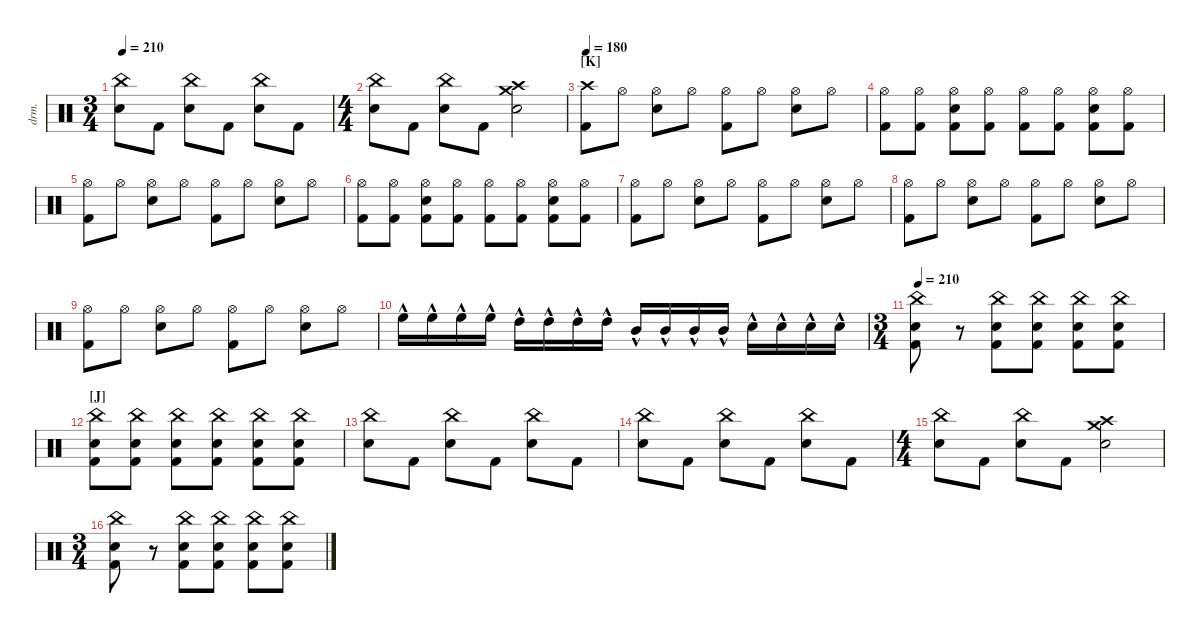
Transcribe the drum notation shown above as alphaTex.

\defaultSystemsLayout 4
\hideDynamics
\bracketExtendMode nobrackets
\otherSystemsTrackNameOrientation horizontal
\track ("Drumkit" "drm.") {instrument percussion}
\staff {score}
\articulation defaults
\ts (3 4)
\tempo 210
\clef neutral
\ks c
("Snare (hit) 2" "China (hit)").8{dy mf beam Down} "Kick (hit) 2".8{beam Down} ("Snare (hit) 2" "China (hit)").8{beam Down} "Kick (hit) 2".8{beam Down} ("Snare (hit) 2" "China (hit)").8{beam Down} "Kick (hit) 2".8{beam Down} |
\ts (4 4)
\beaming (8 2 2 2 2)
("Snare (hit) 2" "China (hit)").8{beam Down} "Kick (hit) 2".8{beam Down} ("Snare (hit) 2" "China (hit)").8{beam Down} "Kick (hit) 2".8{beam Down} ("Crash high (hit)" "Crash medium (hit)" "Snare (hit) 2").2{beam Down} |
\section ("K" "")
\tempo 180
("Kick (hit) 2" "Crash high (hit)").8{beam Down} "Hi-Hat (open)".8{beam Down} ("Hi-Hat (open)" "Snare (hit) 2").8{beam Down} "Hi-Hat (open)".8{beam Down} ("Kick (hit) 2" "Hi-Hat (open)").8{beam Down} "Hi-Hat (open)".8{beam Down} ("Hi-Hat (open)" "Snare (hit) 2").8{beam Down} "Hi-Hat (open)".8{beam Down} |
("Kick (hit) 2" "Hi-Hat (open)").8{beam Down} ("Hi-Hat (open)" "Kick (hit) 2").8{beam Down} ("Hi-Hat (open)" "Snare (hit) 2" "Kick (hit) 2").8{beam Down} ("Hi-Hat (open)" "Kick (hit) 2").8{beam Down} ("Kick (hit) 2" "Hi-Hat (open)").8{beam Down} ("Hi-Hat (open)" "Kick (hit) 2").8{beam Down} ("Hi-Hat (open)" "Snare (hit) 2" "Kick (hit) 2").8{beam Down} ("Hi-Hat (open)" "Kick (hit) 2").8{beam Down} |
("Kick (hit) 2" "Hi-Hat (open)").8{beam Down} "Hi-Hat (open)".8{beam Down} ("Hi-Hat (open)" "Snare (hit) 2").8{beam Down} "Hi-Hat (open)".8{beam Down} ("Kick (hit) 2" "Hi-Hat (open)").8{beam Down} "Hi-Hat (open)".8{beam Down} ("Hi-Hat (open)" "Snare (hit) 2").8{beam Down} "Hi-Hat (open)".8{beam Down} |
("Kick (hit) 2" "Hi-Hat (open)").8{beam Down} ("Hi-Hat (open)" "Kick (hit) 2").8{beam Down} ("Hi-Hat (open)" "Snare (hit) 2" "Kick (hit) 2").8{beam Down} ("Hi-Hat (open)" "Kick (hit) 2").8{beam Down} ("Kick (hit) 2" "Hi-Hat (open)").8{beam Down} ("Hi-Hat (open)" "Kick (hit) 2").8{beam Down} ("Hi-Hat (open)" "Snare (hit) 2" "Kick (hit) 2").8{beam Down} ("Hi-Hat (open)" "Kick (hit) 2").8{beam Down} |
("Kick (hit) 2" "Hi-Hat (open)").8{beam Down} "Hi-Hat (open)".8{beam Down} ("Hi-Hat (open)" "Snare (hit) 2").8{beam Down} "Hi-Hat (open)".8{beam Down} ("Kick (hit) 2" "Hi-Hat (open)").8{beam Down} "Hi-Hat (open)".8{beam Down} ("Hi-Hat (open)" "Snare (hit) 2").8{beam Down} "Hi-Hat (open)".8{beam Down} |
("Kick (hit) 2" "Hi-Hat (open)").8{beam Down} "Hi-Hat (open)".8{beam Down} ("Hi-Hat (open)" "Snare (hit) 2").8{beam Down} "Hi-Hat (open)".8{beam Down} ("Kick (hit) 2" "Hi-Hat (open)").8{beam Down} "Hi-Hat (open)".8{beam Down} ("Hi-Hat (open)" "Snare (hit) 2").8{beam Down} "Hi-Hat (open)".8{beam Down} |
("Kick (hit) 2" "Hi-Hat (open)").8{beam Down} "Hi-Hat (open)".8{beam Down} ("Hi-Hat (open)" "Snare (hit) 2").8{beam Down} "Hi-Hat (open)".8{beam Down} ("Kick (hit) 2" "Hi-Hat (open)").8{beam Down} "Hi-Hat (open)".8{beam Down} ("Hi-Hat (open)" "Snare (hit) 2").8{beam Down} "Hi-Hat (open)".8{beam Down} |
"High Floor Tom (hit)"{hac}.16{beam Down} "High Floor Tom (hit)"{hac}.16{beam Down} "High Floor Tom (hit)"{hac}.16{beam Down} "High Floor Tom (hit)"{hac}.16{beam Down} "High Tom (hit)"{hac}.16{beam Down} "High Tom (hit)"{hac}.16{beam Down} "High Tom (hit)"{hac}.16{beam Down} "High Tom (hit)"{hac}.16{beam Down} "Mid Tom (hit)"{hac}.16{beam Up} "Mid Tom (hit)"{hac}.16{beam Up} "Mid Tom (hit)"{hac}.16{beam Up} "Mid Tom (hit)"{hac}.16{beam Up} "Snare (hit) 2"{hac}.16{beam Down} "Snare (hit) 2"{hac}.16{beam Down} "Snare (hit) 2"{hac}.16{beam Down} "Snare (hit) 2"{hac}.16{beam Down} |
\ts (3 4)
\beaming (8 2 2 2)
\tempo 210
("Kick (hit) 2" "Snare (hit) 2" "China (hit)").8{beam Down} r.8{beam Down} ("Snare (hit) 2" "Kick (hit) 2" "China (hit)").8{beam Down} ("Snare (hit) 2" "Kick (hit) 2" "China (hit)").8{beam Down} ("Snare (hit) 2" "Kick (hit) 2" "China (hit)").8{beam Down} ("Snare (hit) 2" "Kick (hit) 2" "China (hit)").8{beam Down} |
\section ("J" "")
("Kick (hit) 2" "Snare (hit) 2" "China (hit)").8{beam Down} ("Snare (hit) 2" "Kick (hit) 2" "China (hit)").8{beam Down} ("Kick (hit) 2" "Snare (hit) 2" "China (hit)").8{beam Down} ("Snare (hit) 2" "Kick (hit) 2" "China (hit)").8{beam Down} ("Kick (hit) 2" "Snare (hit) 2" "China (hit)").8{beam Down} ("Snare (hit) 2" "Kick (hit) 2" "China (hit)").8{beam Down} |
("Snare (hit) 2" "China (hit)").8{beam Down} "Kick (hit) 2".8{beam Down} ("Snare (hit) 2" "China (hit)").8{beam Down} "Kick (hit) 2".8{beam Down} ("Snare (hit) 2" "China (hit)").8{beam Down} "Kick (hit) 2".8{beam Down} |
("Snare (hit) 2" "China (hit)").8{beam Down} "Kick (hit) 2".8{beam Down} ("Snare (hit) 2" "China (hit)").8{beam Down} "Kick (hit) 2".8{beam Down} ("Snare (hit) 2" "China (hit)").8{beam Down} "Kick (hit) 2".8{beam Down} |
\ts (4 4)
\beaming (8 2 2 2 2)
("Snare (hit) 2" "China (hit)").8{beam Down} "Kick (hit) 2".8{beam Down} ("Snare (hit) 2" "China (hit)").8{beam Down} "Kick (hit) 2".8{beam Down} ("Crash high (hit)" "Crash medium (hit)" "Snare (hit) 2").2{beam Down} |
\ts (3 4)
\beaming (8 2 2 2)
("Kick (hit) 2" "Snare (hit) 2" "China (hit)").8{beam Down} r.8{beam Down} ("Snare (hit) 2" "Kick (hit) 2" "China (hit)").8{beam Down} ("Snare (hit) 2" "Kick (hit) 2" "China (hit)").8{beam Down} ("Snare (hit) 2" "Kick (hit) 2" "China (hit)").8{beam Down} ("Snare (hit) 2" "Kick (hit) 2" "China (hit)").8{beam Down}
